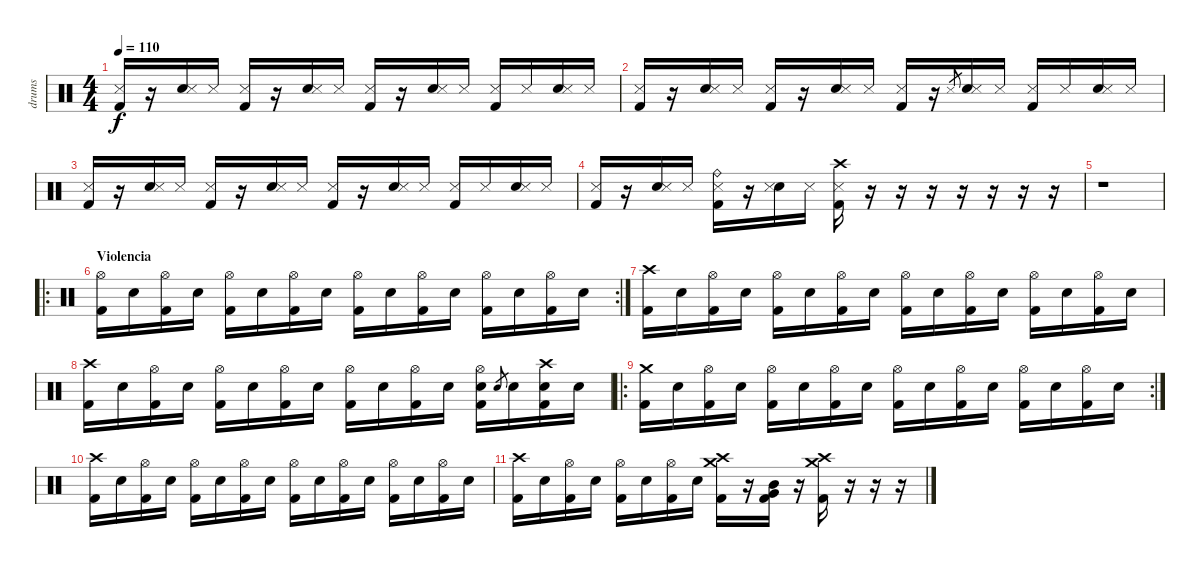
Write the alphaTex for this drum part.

\track ("drums" "drums") {instrument percussion}
\staff {score}
\articulation defaults
\ts (4 4)
\tempo 110
\clef neutral
\ks c
("Kick (hit) 2" "Snare (side stick) 3").16{dy f} r.16 ("Electric Snare (hit)" "Snare (side stick) 3").16 "Snare (side stick) 3".16 ("Kick (hit) 2" "Snare (side stick) 3").16 r.16 ("Electric Snare (hit)" "Snare (side stick) 3").16 "Snare (side stick) 3".16 ("Kick (hit) 2" "Snare (side stick) 3").16 r.16 ("Electric Snare (hit)" "Snare (side stick) 3").16 "Snare (side stick) 3".16 ("Kick (hit) 2" "Snare (side stick) 3").16 "Snare (side stick) 3".16 ("Electric Snare (hit)" "Snare (side stick) 3").16 "Snare (side stick) 3".16 |
("Kick (hit) 2" "Snare (side stick) 3").16 r.16 ("Electric Snare (hit)" "Snare (side stick) 3").16 "Snare (side stick) 3".16 ("Kick (hit) 2" "Snare (side stick) 3").16 r.16 ("Electric Snare (hit)" "Snare (side stick) 3").16 "Snare (side stick) 3".16 ("Kick (hit) 2" "Snare (side stick) 3").16 r.16 "Snare (side stick) 3".8{gr} ("Electric Snare (hit)" "Snare (side stick) 3").16 "Snare (side stick) 3".16 ("Kick (hit) 2" "Snare (side stick) 3").16 "Snare (side stick) 3".16 ("Electric Snare (hit)" "Snare (side stick) 3").16 "Snare (side stick) 3".16 |
("Kick (hit) 2" "Snare (side stick) 3").16 r.16 ("Electric Snare (hit)" "Snare (side stick) 3").16 "Snare (side stick) 3".16 ("Kick (hit) 2" "Snare (side stick) 3").16 r.16 ("Electric Snare (hit)" "Snare (side stick) 3").16 "Snare (side stick) 3".16 ("Kick (hit) 2" "Snare (side stick) 3").16 r.16 ("Electric Snare (hit)" "Snare (side stick) 3").16 "Snare (side stick) 3".16 ("Kick (hit) 2" "Snare (side stick) 3").16 "Snare (side stick) 3".16 ("Electric Snare (hit)" "Snare (side stick) 3").16 "Snare (side stick) 3".16 |
("Kick (hit) 2" "Snare (side stick) 3").16 r.16 ("Electric Snare (hit)" "Snare (side stick) 3").16 "Snare (side stick) 3".16 ("Kick (hit) 2" "Ride (bell)" "Snare (side stick) 3").16 r.16 ("Electric Snare (hit)" "Snare (side stick) 3").16 "Snare (side stick) 3".16 ("Kick (hit) 2" "Crash high (hit)" "Snare (side stick) 3").16 r.16 r.16 r.16 r.16 r.16 r.16 r.16 |
r.1 |
\ro
\rc 2
\section ("" "Violencia")
("Kick (hit) 2" "Hi-Hat (open)").16 "Electric Snare (hit)".16 ("Kick (hit) 2" "Hi-Hat (open)").16 "Electric Snare (hit)".16 ("Kick (hit) 2" "Hi-Hat (open)").16 "Electric Snare (hit)".16 ("Kick (hit) 2" "Hi-Hat (open)").16 "Electric Snare (hit)".16 ("Kick (hit) 2" "Hi-Hat (open)").16 "Electric Snare (hit)".16 ("Kick (hit) 2" "Hi-Hat (open)").16 "Electric Snare (hit)".16 ("Kick (hit) 2" "Hi-Hat (open)").16 "Electric Snare (hit)".16 ("Kick (hit) 2" "Hi-Hat (open)").16 "Electric Snare (hit)".16 |
("Kick (hit) 2" "Crash high (hit)").16 "Electric Snare (hit)".16 ("Kick (hit) 2" "Hi-Hat (open)").16 "Electric Snare (hit)".16 ("Kick (hit) 2" "Hi-Hat (open)").16 "Electric Snare (hit)".16 ("Kick (hit) 2" "Hi-Hat (open)").16 "Electric Snare (hit)".16 ("Kick (hit) 2" "Hi-Hat (open)").16 "Electric Snare (hit)".16 ("Kick (hit) 2" "Hi-Hat (open)").16 "Electric Snare (hit)".16 ("Kick (hit) 2" "Hi-Hat (open)").16 "Electric Snare (hit)".16 ("Kick (hit) 2" "Hi-Hat (open)").16 "Electric Snare (hit)".16 |
("Kick (hit) 2" "Crash high (hit)").16 "Electric Snare (hit)".16 ("Kick (hit) 2" "Hi-Hat (open)").16 "Electric Snare (hit)".16 ("Kick (hit) 2" "Hi-Hat (open)").16 "Electric Snare (hit)".16 ("Kick (hit) 2" "Hi-Hat (open)").16 "Electric Snare (hit)".16 ("Kick (hit) 2" "Hi-Hat (open)").16 "Electric Snare (hit)".16 ("Kick (hit) 2" "Hi-Hat (open)").16 "Electric Snare (hit)".16 ("Kick (hit) 2" "Hi-Hat (open)" "Electric Snare (hit)").16 "Electric Snare (hit)".8{gr} "Electric Snare (hit)".16 ("Kick (hit) 2" "Crash high (hit)" "Electric Snare (hit)").16 "Electric Snare (hit)".16 |
\ro
\rc 2
("Kick (hit) 2" "Crash medium (hit)").16 "Electric Snare (hit)".16 ("Kick (hit) 2" "Hi-Hat (open)").16 "Electric Snare (hit)".16 ("Kick (hit) 2" "Hi-Hat (open)").16 "Electric Snare (hit)".16 ("Kick (hit) 2" "Hi-Hat (open)").16 "Electric Snare (hit)".16 ("Kick (hit) 2" "Hi-Hat (open)").16 "Electric Snare (hit)".16 ("Kick (hit) 2" "Hi-Hat (open)").16 "Electric Snare (hit)".16 ("Kick (hit) 2" "Hi-Hat (open)").16 "Electric Snare (hit)".16 ("Kick (hit) 2" "Hi-Hat (open)").16 "Electric Snare (hit)".16 |
("Kick (hit) 2" "Crash high (hit)").16 "Electric Snare (hit)".16 ("Kick (hit) 2" "Hi-Hat (open)").16 "Electric Snare (hit)".16 ("Kick (hit) 2" "Hi-Hat (open)").16 "Electric Snare (hit)".16 ("Kick (hit) 2" "Hi-Hat (open)").16 "Electric Snare (hit)".16 ("Kick (hit) 2" "Hi-Hat (open)").16 "Electric Snare (hit)".16 ("Kick (hit) 2" "Hi-Hat (open)").16 "Electric Snare (hit)".16 ("Kick (hit) 2" "Hi-Hat (open)").16 "Electric Snare (hit)".16 ("Kick (hit) 2" "Hi-Hat (open)").16 "Electric Snare (hit)".16 |
("Kick (hit) 2" "Crash high (hit)").16 "Electric Snare (hit)".16 ("Kick (hit) 2" "Hi-Hat (open)").16 "Electric Snare (hit)".16 ("Kick (hit) 2" "Hi-Hat (open)").16 "Electric Snare (hit)".16 ("Kick (hit) 2" "Hi-Hat (open)").16 "Electric Snare (hit)".16 ("Kick (hit) 2" "Crash high (hit)" "Crash medium (hit)").16 r.16 ("Kick (hit) 2" "Very Low Tom (hit)" "Mid Tom (hit)").16 r.16 ("Kick (hit) 2" "Crash high (hit)" "Crash medium (hit)").16 r.16 r.16 r.16
